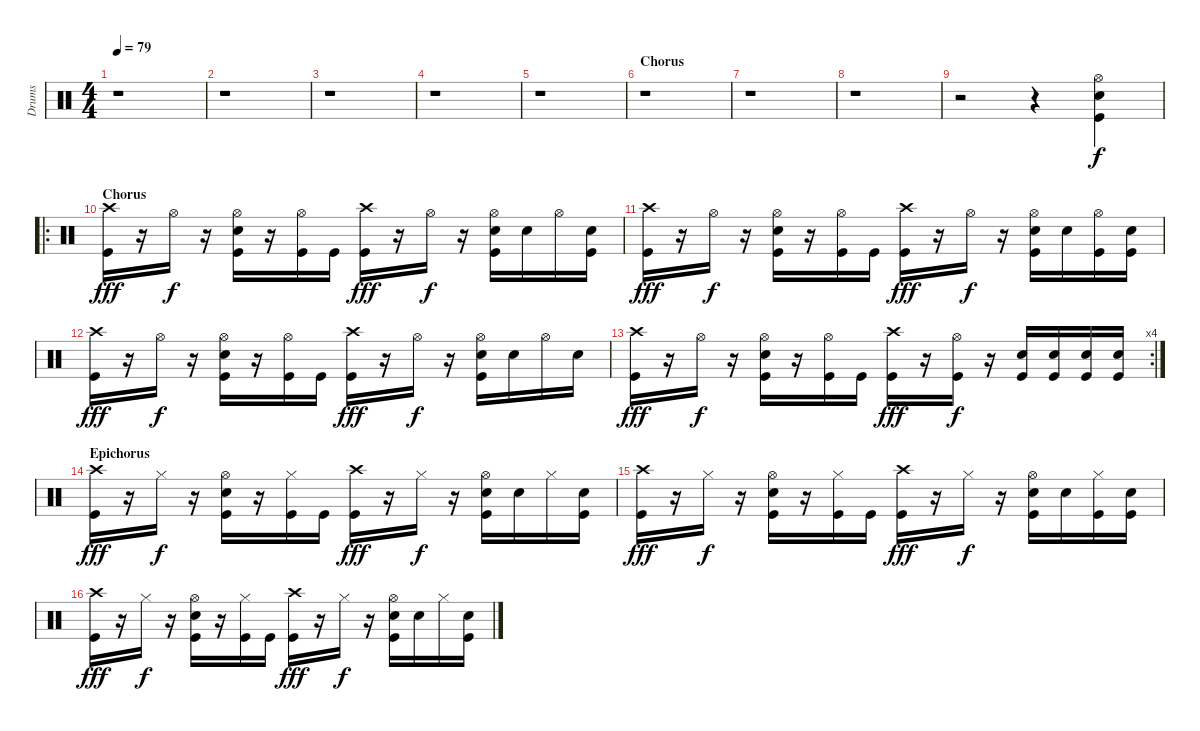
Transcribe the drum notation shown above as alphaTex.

\track ("Drums" "Drums") {instrument percussion}
\staff {score}
\articulation defaults
\ts (4 4)
\tempo 79
\clef neutral
\ks c
r.1{dy f} |
r.1 |
r.1 |
r.1 |
r.1 |
\section ("" "Chorus")
r.1 |
r.1 |
r.1 |
r.2 r.4 ("Hi-Hat (open)" "Electric Snare (hit)" "Kick (hit)").4 |
\ro
\section ("" "Chorus")
("Crash high (hit)" "Kick (hit)").16{dy fff} r.16 "Hi-Hat (open)".16{dy f} r.16 ("Hi-Hat (open)" "Electric Snare (hit)" "Kick (hit)").16 r.16 ("Hi-Hat (open)" "Kick (hit)").16 "Kick (hit)".16 ("Crash high (hit)" "Kick (hit)").16{dy fff} r.16 "Hi-Hat (open)".16{dy f} r.16 ("Hi-Hat (open)" "Electric Snare (hit)" "Kick (hit)").16 "Electric Snare (hit)".16 "Hi-Hat (open)".16 ("Electric Snare (hit)" "Kick (hit)").16 |
("Crash high (hit)" "Kick (hit)").16{dy fff} r.16 "Hi-Hat (open)".16{dy f} r.16 ("Hi-Hat (open)" "Electric Snare (hit)" "Kick (hit)").16 r.16 ("Hi-Hat (open)" "Kick (hit)").16 "Kick (hit)".16 ("Crash high (hit)" "Kick (hit)").16{dy fff} r.16 "Hi-Hat (open)".16{dy f} r.16 ("Hi-Hat (open)" "Electric Snare (hit)" "Kick (hit)").16 "Electric Snare (hit)".16 ("Hi-Hat (open)" "Kick (hit)").16 ("Electric Snare (hit)" "Kick (hit)").16 |
("Crash high (hit)" "Kick (hit)").16{dy fff} r.16 "Hi-Hat (open)".16{dy f} r.16 ("Hi-Hat (open)" "Electric Snare (hit)" "Kick (hit)").16 r.16 ("Hi-Hat (open)" "Kick (hit)").16 "Kick (hit)".16 ("Crash high (hit)" "Kick (hit)").16{dy fff} r.16 "Hi-Hat (open)".16{dy f} r.16 ("Hi-Hat (open)" "Electric Snare (hit)" "Kick (hit)").16 "Electric Snare (hit)".16 "Hi-Hat (open)".16 "Electric Snare (hit)".16 |
\rc 4
("Crash high (hit)" "Kick (hit)").16{dy fff} r.16 "Hi-Hat (open)".16{dy f} r.16 ("Hi-Hat (open)" "Electric Snare (hit)" "Kick (hit)").16 r.16 ("Hi-Hat (open)" "Kick (hit)").16 "Kick (hit)".16 ("Crash high (hit)" "Kick (hit)").16{dy fff} r.16 ("Hi-Hat (open)" "Kick (hit)").16{dy f} r.16 ("Electric Snare (hit)" "Kick (hit)").16 ("Electric Snare (hit)" "Kick (hit)").16 ("Electric Snare (hit)" "Kick (hit)").16 ("Electric Snare (hit)" "Kick (hit)").16 |
\section ("" "Epichorus")
("Crash high (hit)" "Kick (hit)").16{dy fff volume 11} r.16 "Hi-Hat (closed)".16{dy f} r.16 ("Hi-Hat (open)" "Electric Snare (hit)" "Kick (hit)").16 r.16 ("Hi-Hat (closed)" "Kick (hit)").16 "Kick (hit)".16 ("Crash high (hit)" "Kick (hit)").16{dy fff} r.16 "Hi-Hat (closed)".16{dy f} r.16 ("Hi-Hat (open)" "Electric Snare (hit)" "Kick (hit)").16 "Electric Snare (hit)".16 "Hi-Hat (closed)".16 ("Electric Snare (hit)" "Kick (hit)").16 |
("Crash high (hit)" "Kick (hit)").16{dy fff} r.16 "Hi-Hat (closed)".16{dy f} r.16 ("Hi-Hat (open)" "Electric Snare (hit)" "Kick (hit)").16 r.16 ("Hi-Hat (closed)" "Kick (hit)").16 "Kick (hit)".16 ("Crash high (hit)" "Kick (hit)").16{dy fff} r.16 "Hi-Hat (closed)".16{dy f} r.16 ("Hi-Hat (open)" "Electric Snare (hit)" "Kick (hit)").16 "Electric Snare (hit)".16 ("Hi-Hat (closed)" "Kick (hit)").16 ("Electric Snare (hit)" "Kick (hit)").16 |
("Crash high (hit)" "Kick (hit)").16{dy fff volume 11} r.16 "Hi-Hat (closed)".16{dy f} r.16 ("Hi-Hat (open)" "Electric Snare (hit)" "Kick (hit)").16 r.16 ("Hi-Hat (closed)" "Kick (hit)").16 "Kick (hit)".16 ("Crash high (hit)" "Kick (hit)").16{dy fff} r.16 "Hi-Hat (closed)".16{dy f} r.16 ("Hi-Hat (open)" "Electric Snare (hit)" "Kick (hit)").16 "Electric Snare (hit)".16 "Hi-Hat (closed)".16 ("Electric Snare (hit)" "Kick (hit)").16
